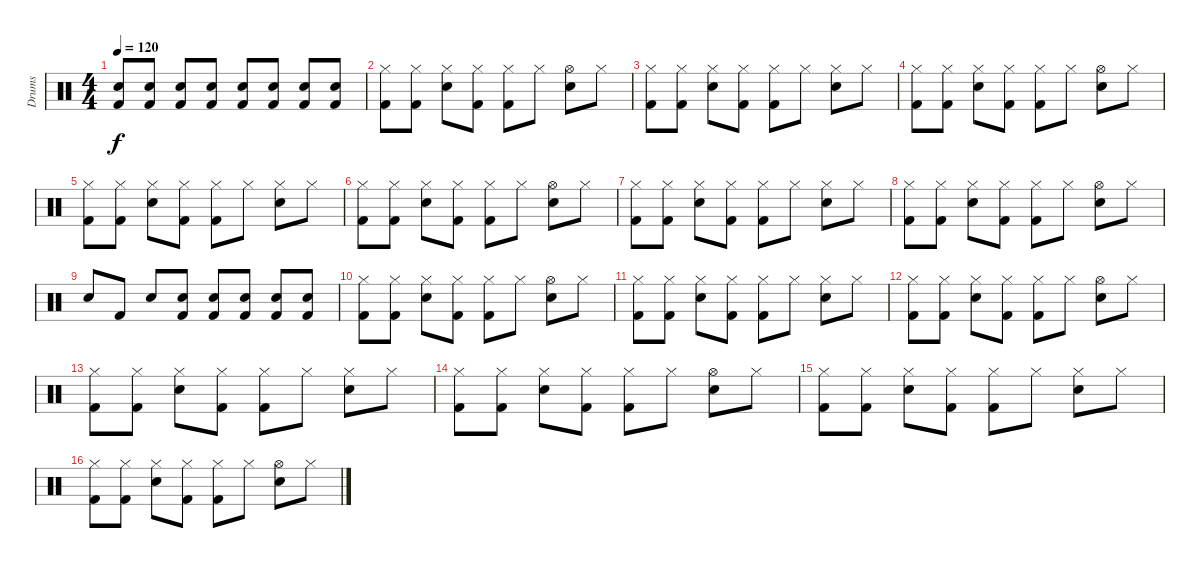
\track ("Drums " "Drums ") {instrument percussion}
\staff {score}
\articulation defaults
\ts (4 4)
\tempo 120
\clef neutral
\ks c
("Kick (hit) 2" "Electric Snare (hit)").8{dy f} ("Kick (hit) 2" "Electric Snare (hit)").8 ("Kick (hit) 2" "Electric Snare (hit)").8 ("Kick (hit) 2" "Electric Snare (hit)").8 ("Kick (hit) 2" "Electric Snare (hit)").8 ("Kick (hit) 2" "Electric Snare (hit)").8 ("Kick (hit) 2" "Electric Snare (hit)").8 ("Kick (hit) 2" "Electric Snare (hit)").8 |
("Kick (hit) 2" "Hi-Hat (closed)").8 ("Kick (hit) 2" "Hi-Hat (closed)").8 ("Electric Snare (hit)" "Hi-Hat (closed)").8 ("Kick (hit) 2" "Hi-Hat (closed)").8 ("Kick (hit) 2" "Hi-Hat (closed)").8 "Hi-Hat (closed)".8 ("Electric Snare (hit)" "Hi-Hat (open)").8 "Hi-Hat (closed)".8 |
("Kick (hit) 2" "Hi-Hat (closed)").8 ("Kick (hit) 2" "Hi-Hat (closed)").8 ("Electric Snare (hit)" "Hi-Hat (closed)").8 ("Kick (hit) 2" "Hi-Hat (closed)").8 ("Kick (hit) 2" "Hi-Hat (closed)").8 "Hi-Hat (closed)".8 ("Electric Snare (hit)" "Hi-Hat (closed)").8 "Hi-Hat (closed)".8 |
("Kick (hit) 2" "Hi-Hat (closed)").8 ("Kick (hit) 2" "Hi-Hat (closed)").8 ("Electric Snare (hit)" "Hi-Hat (closed)").8 ("Kick (hit) 2" "Hi-Hat (closed)").8 ("Kick (hit) 2" "Hi-Hat (closed)").8 "Hi-Hat (closed)".8 ("Electric Snare (hit)" "Hi-Hat (open)").8 "Hi-Hat (closed)".8 |
("Kick (hit) 2" "Hi-Hat (closed)").8 ("Kick (hit) 2" "Hi-Hat (closed)").8 ("Electric Snare (hit)" "Hi-Hat (closed)").8 ("Kick (hit) 2" "Hi-Hat (closed)").8 ("Kick (hit) 2" "Hi-Hat (closed)").8 "Hi-Hat (closed)".8 ("Electric Snare (hit)" "Hi-Hat (closed)").8 "Hi-Hat (closed)".8 |
("Kick (hit) 2" "Hi-Hat (closed)").8 ("Kick (hit) 2" "Hi-Hat (closed)").8 ("Electric Snare (hit)" "Hi-Hat (closed)").8 ("Kick (hit) 2" "Hi-Hat (closed)").8 ("Kick (hit) 2" "Hi-Hat (closed)").8 "Hi-Hat (closed)".8 ("Electric Snare (hit)" "Hi-Hat (open)").8 "Hi-Hat (closed)".8 |
("Kick (hit) 2" "Hi-Hat (closed)").8 ("Kick (hit) 2" "Hi-Hat (closed)").8 ("Electric Snare (hit)" "Hi-Hat (closed)").8 ("Kick (hit) 2" "Hi-Hat (closed)").8 ("Kick (hit) 2" "Hi-Hat (closed)").8 "Hi-Hat (closed)".8 ("Electric Snare (hit)" "Hi-Hat (closed)").8 "Hi-Hat (closed)".8 |
("Kick (hit) 2" "Hi-Hat (closed)").8 ("Kick (hit) 2" "Hi-Hat (closed)").8 ("Electric Snare (hit)" "Hi-Hat (closed)").8 ("Kick (hit) 2" "Hi-Hat (closed)").8 ("Kick (hit) 2" "Hi-Hat (closed)").8 "Hi-Hat (closed)".8 ("Electric Snare (hit)" "Hi-Hat (open)").8 "Hi-Hat (closed)".8 |
"Electric Snare (hit)".8 "Kick (hit) 2".8 "Electric Snare (hit)".8 ("Kick (hit) 2" "Electric Snare (hit)").8 ("Kick (hit) 2" "Electric Snare (hit)").8 ("Kick (hit) 2" "Electric Snare (hit)").8 ("Kick (hit) 2" "Electric Snare (hit)").8 ("Kick (hit) 2" "Electric Snare (hit)").8 |
("Kick (hit) 2" "Hi-Hat (closed)").8 ("Kick (hit) 2" "Hi-Hat (closed)").8 ("Electric Snare (hit)" "Hi-Hat (closed)").8 ("Kick (hit) 2" "Hi-Hat (closed)").8 ("Kick (hit) 2" "Hi-Hat (closed)").8 "Hi-Hat (closed)".8 ("Electric Snare (hit)" "Hi-Hat (open)").8 "Hi-Hat (closed)".8 |
("Kick (hit) 2" "Hi-Hat (closed)").8 ("Kick (hit) 2" "Hi-Hat (closed)").8 ("Electric Snare (hit)" "Hi-Hat (closed)").8 ("Kick (hit) 2" "Hi-Hat (closed)").8 ("Kick (hit) 2" "Hi-Hat (closed)").8 "Hi-Hat (closed)".8 ("Electric Snare (hit)" "Hi-Hat (closed)").8 "Hi-Hat (closed)".8 |
("Kick (hit) 2" "Hi-Hat (closed)").8 ("Kick (hit) 2" "Hi-Hat (closed)").8 ("Electric Snare (hit)" "Hi-Hat (closed)").8 ("Kick (hit) 2" "Hi-Hat (closed)").8 ("Kick (hit) 2" "Hi-Hat (closed)").8 "Hi-Hat (closed)".8 ("Electric Snare (hit)" "Hi-Hat (open)").8 "Hi-Hat (closed)".8 |
("Kick (hit) 2" "Hi-Hat (closed)").8 ("Kick (hit) 2" "Hi-Hat (closed)").8 ("Electric Snare (hit)" "Hi-Hat (closed)").8 ("Kick (hit) 2" "Hi-Hat (closed)").8 ("Kick (hit) 2" "Hi-Hat (closed)").8 "Hi-Hat (closed)".8 ("Electric Snare (hit)" "Hi-Hat (closed)").8 "Hi-Hat (closed)".8 |
("Kick (hit) 2" "Hi-Hat (closed)").8 ("Kick (hit) 2" "Hi-Hat (closed)").8 ("Electric Snare (hit)" "Hi-Hat (closed)").8 ("Kick (hit) 2" "Hi-Hat (closed)").8 ("Kick (hit) 2" "Hi-Hat (closed)").8 "Hi-Hat (closed)".8 ("Electric Snare (hit)" "Hi-Hat (open)").8 "Hi-Hat (closed)".8 |
("Kick (hit) 2" "Hi-Hat (closed)").8 ("Kick (hit) 2" "Hi-Hat (closed)").8 ("Electric Snare (hit)" "Hi-Hat (closed)").8 ("Kick (hit) 2" "Hi-Hat (closed)").8 ("Kick (hit) 2" "Hi-Hat (closed)").8 "Hi-Hat (closed)".8 ("Electric Snare (hit)" "Hi-Hat (closed)").8 "Hi-Hat (closed)".8 |
("Kick (hit) 2" "Hi-Hat (closed)").8 ("Kick (hit) 2" "Hi-Hat (closed)").8 ("Electric Snare (hit)" "Hi-Hat (closed)").8 ("Kick (hit) 2" "Hi-Hat (closed)").8 ("Kick (hit) 2" "Hi-Hat (closed)").8 "Hi-Hat (closed)".8 ("Electric Snare (hit)" "Hi-Hat (open)").8 "Hi-Hat (closed)".8
